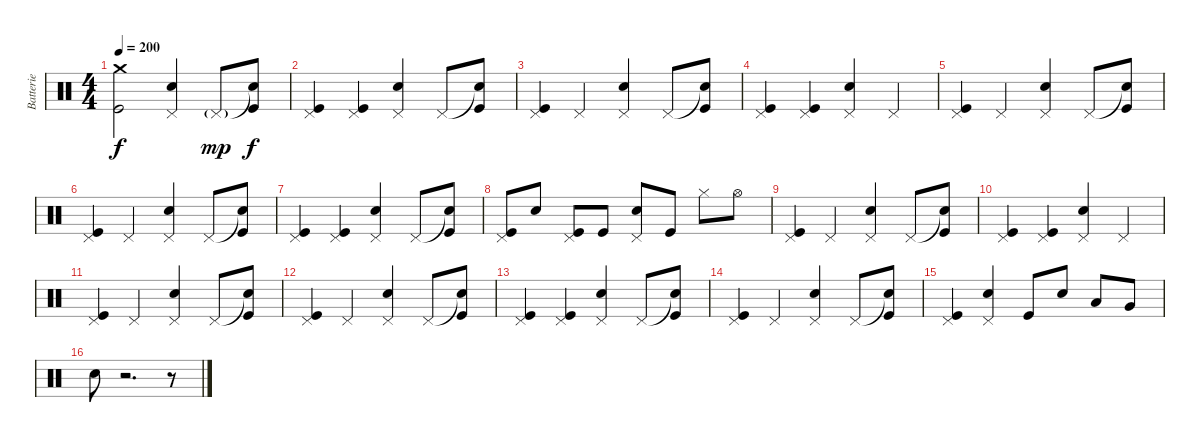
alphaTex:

\track ("Batterie" "Batterie") {instrument percussion}
\staff {score}
\articulation defaults
\ts (4 4)
\tempo 200
\clef neutral
\ks c
("Crash medium (hit)" "Kick (hit)").2{dy f} ("Pedal Hi-Hat (hit)" "Snare (hit) 2").4 "Pedal Hi-Hat (hit)"{g}.8{dy mp} ("Snare (hit)"{t} "Kick (hit)").8{dy f} |
("Pedal Hi-Hat (hit)" "Kick (hit)").4 ("Pedal Hi-Hat (hit)" "Kick (hit)").4 ("Pedal Hi-Hat (hit)" "Snare (hit) 2").4 "Pedal Hi-Hat (hit)".8 ("Snare (hit)"{t} "Kick (hit)").8 |
("Pedal Hi-Hat (hit)" "Kick (hit)").4 "Pedal Hi-Hat (hit)".4 ("Pedal Hi-Hat (hit)" "Snare (hit) 2").4 "Pedal Hi-Hat (hit)".8 ("Snare (hit)"{t} "Kick (hit)").8 |
("Pedal Hi-Hat (hit)" "Kick (hit)").4 ("Pedal Hi-Hat (hit)" "Kick (hit)").4 ("Pedal Hi-Hat (hit)" "Snare (hit) 2").4 "Pedal Hi-Hat (hit)".4 |
("Pedal Hi-Hat (hit)" "Kick (hit)").4 "Pedal Hi-Hat (hit)".4 ("Pedal Hi-Hat (hit)" "Snare (hit) 2").4 "Pedal Hi-Hat (hit)".8 ("Snare (hit)"{t} "Kick (hit)").8 |
("Pedal Hi-Hat (hit)" "Kick (hit)").4 "Pedal Hi-Hat (hit)".4 ("Pedal Hi-Hat (hit)" "Snare (hit) 2").4 "Pedal Hi-Hat (hit)".8 ("Snare (hit)"{t} "Kick (hit)").8 |
("Pedal Hi-Hat (hit)" "Kick (hit)").4 ("Pedal Hi-Hat (hit)" "Kick (hit)").4 ("Pedal Hi-Hat (hit)" "Snare (hit) 2").4 "Pedal Hi-Hat (hit)".8 ("Snare (hit)"{t} "Kick (hit)").8 |
("Pedal Hi-Hat (hit)" "Kick (hit)").8 "Snare (hit) 2".8 ("Pedal Hi-Hat (hit)" "Kick (hit)").8 "Kick (hit)".8 ("Pedal Hi-Hat (hit)" "Snare (hit) 2").8 "Kick (hit)".8 "Hi-Hat (closed)".8 "Hi-Hat (open)".8 |
("Pedal Hi-Hat (hit)" "Kick (hit)").4 "Pedal Hi-Hat (hit)".4 ("Pedal Hi-Hat (hit)" "Snare (hit) 2").4 "Pedal Hi-Hat (hit)".8 ("Snare (hit)"{t} "Kick (hit)").8 |
("Pedal Hi-Hat (hit)" "Kick (hit)").4 ("Pedal Hi-Hat (hit)" "Kick (hit)").4 ("Pedal Hi-Hat (hit)" "Snare (hit) 2").4 "Pedal Hi-Hat (hit)".4 |
("Pedal Hi-Hat (hit)" "Kick (hit)").4 "Pedal Hi-Hat (hit)".4 ("Pedal Hi-Hat (hit)" "Snare (hit) 2").4 "Pedal Hi-Hat (hit)".8 ("Snare (hit)"{t} "Kick (hit)").8 |
("Pedal Hi-Hat (hit)" "Kick (hit)").4 "Pedal Hi-Hat (hit)".4 ("Pedal Hi-Hat (hit)" "Snare (hit) 2").4 "Pedal Hi-Hat (hit)".8 ("Snare (hit)"{t} "Kick (hit)").8 |
("Pedal Hi-Hat (hit)" "Kick (hit)").4 ("Pedal Hi-Hat (hit)" "Kick (hit)").4 ("Pedal Hi-Hat (hit)" "Snare (hit) 2").4 "Pedal Hi-Hat (hit)".8 ("Snare (hit)"{t} "Kick (hit)").8 |
("Pedal Hi-Hat (hit)" "Kick (hit)").4 "Pedal Hi-Hat (hit)".4 ("Pedal Hi-Hat (hit)" "Snare (hit) 2").4 "Pedal Hi-Hat (hit)".8 ("Snare (hit)"{t} "Kick (hit)").8 |
("Pedal Hi-Hat (hit)" "Kick (hit)").4 ("Pedal Hi-Hat (hit)" "Snare (hit) 2").4 "Kick (hit)".8 "Snare (hit) 2".8 "Low Tom (hit)".8 "Very Low Tom (hit)".8 |
"Snare (hit) 2".8 r.2{d} r.8
